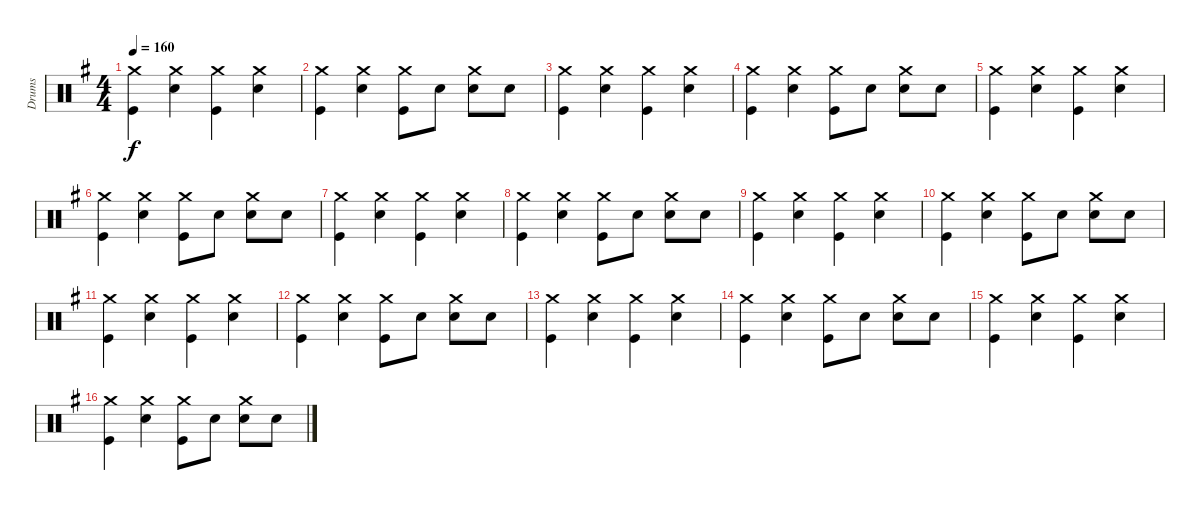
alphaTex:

\track ("Drums" "Drums") {instrument percussion}
\staff {score}
\articulation defaults
\ts (4 4)
\tempo 160
\clef neutral
\ks eminor
("Crash medium (hit)" "Kick (hit)").4{dy f} ("Crash medium (hit)" "Snare (hit) 2").4 ("Crash medium (hit)" "Kick (hit)").4 ("Crash medium (hit)" "Snare (hit) 2").4 |
("Crash medium (hit)" "Kick (hit)").4 ("Crash medium (hit)" "Snare (hit) 2").4 ("Crash medium (hit)" "Kick (hit)").8 "Snare (hit) 2".8 ("Crash medium (hit)" "Snare (hit) 2").8 "Snare (hit) 2".8 |
("Crash medium (hit)" "Kick (hit)").4 ("Crash medium (hit)" "Snare (hit) 2").4 ("Crash medium (hit)" "Kick (hit)").4 ("Crash medium (hit)" "Snare (hit) 2").4 |
("Crash medium (hit)" "Kick (hit)").4 ("Crash medium (hit)" "Snare (hit) 2").4 ("Crash medium (hit)" "Kick (hit)").8 "Snare (hit) 2".8 ("Crash medium (hit)" "Snare (hit) 2").8 "Snare (hit) 2".8 |
("Crash medium (hit)" "Kick (hit)").4 ("Crash medium (hit)" "Snare (hit) 2").4 ("Crash medium (hit)" "Kick (hit)").4 ("Crash medium (hit)" "Snare (hit) 2").4 |
("Crash medium (hit)" "Kick (hit)").4 ("Crash medium (hit)" "Snare (hit) 2").4 ("Crash medium (hit)" "Kick (hit)").8 "Snare (hit) 2".8 ("Crash medium (hit)" "Snare (hit) 2").8 "Snare (hit) 2".8 |
("Crash medium (hit)" "Kick (hit)").4 ("Crash medium (hit)" "Snare (hit) 2").4 ("Crash medium (hit)" "Kick (hit)").4 ("Crash medium (hit)" "Snare (hit) 2").4 |
("Crash medium (hit)" "Kick (hit)").4 ("Crash medium (hit)" "Snare (hit) 2").4 ("Crash medium (hit)" "Kick (hit)").8 "Snare (hit) 2".8 ("Crash medium (hit)" "Snare (hit) 2").8 "Snare (hit) 2".8 |
("Crash medium (hit)" "Kick (hit)").4 ("Crash medium (hit)" "Snare (hit) 2").4 ("Crash medium (hit)" "Kick (hit)").4 ("Crash medium (hit)" "Snare (hit) 2").4 |
("Crash medium (hit)" "Kick (hit)").4 ("Crash medium (hit)" "Snare (hit) 2").4 ("Crash medium (hit)" "Kick (hit)").8 "Snare (hit) 2".8 ("Crash medium (hit)" "Snare (hit) 2").8 "Snare (hit) 2".8 |
("Crash medium (hit)" "Kick (hit)").4 ("Crash medium (hit)" "Snare (hit) 2").4 ("Crash medium (hit)" "Kick (hit)").4 ("Crash medium (hit)" "Snare (hit) 2").4 |
("Crash medium (hit)" "Kick (hit)").4 ("Crash medium (hit)" "Snare (hit) 2").4 ("Crash medium (hit)" "Kick (hit)").8 "Snare (hit) 2".8 ("Crash medium (hit)" "Snare (hit) 2").8 "Snare (hit) 2".8 |
("Crash medium (hit)" "Kick (hit)").4 ("Crash medium (hit)" "Snare (hit) 2").4 ("Crash medium (hit)" "Kick (hit)").4 ("Crash medium (hit)" "Snare (hit) 2").4 |
("Crash medium (hit)" "Kick (hit)").4 ("Crash medium (hit)" "Snare (hit) 2").4 ("Crash medium (hit)" "Kick (hit)").8 "Snare (hit) 2".8 ("Crash medium (hit)" "Snare (hit) 2").8 "Snare (hit) 2".8 |
("Crash medium (hit)" "Kick (hit)").4 ("Crash medium (hit)" "Snare (hit) 2").4 ("Crash medium (hit)" "Kick (hit)").4 ("Crash medium (hit)" "Snare (hit) 2").4 |
("Crash medium (hit)" "Kick (hit)").4 ("Crash medium (hit)" "Snare (hit) 2").4 ("Crash medium (hit)" "Kick (hit)").8 "Snare (hit) 2".8 ("Crash medium (hit)" "Snare (hit) 2").8 "Snare (hit) 2".8
